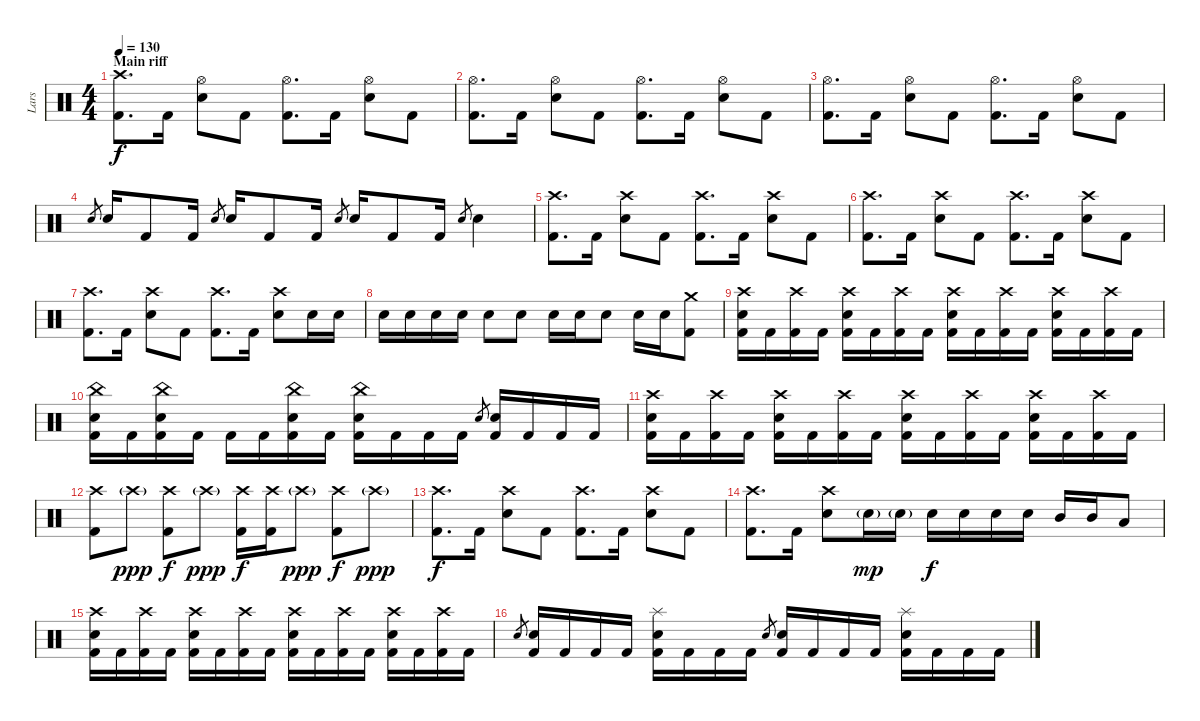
\track ("Lars" "Lars") {instrument percussion}
\staff {score}
\articulation defaults
\ts (4 4)
\section ("" "Main riff")
\tempo 130
\clef neutral
\ks c
("Kick (hit) 2" "Crash high (hit)").8{d dy f} "Kick (hit) 2".16 ("Electric Snare (hit)" "Hi-Hat (open)").8 "Kick (hit) 2".8 ("Kick (hit) 2" "Hi-Hat (open)").8{d} "Kick (hit) 2".16 ("Electric Snare (hit)" "Hi-Hat (open)").8 "Kick (hit) 2".8 |
("Kick (hit) 2" "Hi-Hat (open)").8{d} "Kick (hit) 2".16 ("Electric Snare (hit)" "Hi-Hat (open)").8 "Kick (hit) 2".8 ("Kick (hit) 2" "Hi-Hat (open)").8{d} "Kick (hit) 2".16 ("Electric Snare (hit)" "Hi-Hat (open)").8 "Kick (hit) 2".8 |
("Kick (hit) 2" "Hi-Hat (open)").8{d} "Kick (hit) 2".16 ("Electric Snare (hit)" "Hi-Hat (open)").8 "Kick (hit) 2".8 ("Kick (hit) 2" "Hi-Hat (open)").8{d} "Kick (hit) 2".16 ("Electric Snare (hit)" "Hi-Hat (open)").8 "Kick (hit) 2".8 |
"Electric Snare (hit)".8{gr} "Electric Snare (hit)".16 "Kick (hit) 2".8 "Kick (hit) 2".16 "Electric Snare (hit)".8{gr} "Electric Snare (hit)".16 "Kick (hit) 2".8 "Kick (hit) 2".16 "Electric Snare (hit)".8{gr} "Electric Snare (hit)".16 "Kick (hit) 2".8 "Kick (hit) 2".16 "Electric Snare (hit)".8{gr} "Electric Snare (hit)".4 |
\section ("" "")
("Kick (hit) 2" "Crash high (hit)").8{d} "Kick (hit) 2".16 ("Electric Snare (hit)" "Crash high (hit)").8 "Kick (hit) 2".8 ("Kick (hit) 2" "Crash high (hit)").8{d} "Kick (hit) 2".16 ("Electric Snare (hit)" "Crash high (hit)").8 "Kick (hit) 2".8 |
("Kick (hit) 2" "Crash high (hit)").8{d} "Kick (hit) 2".16 ("Electric Snare (hit)" "Crash high (hit)").8 "Kick (hit) 2".8 ("Kick (hit) 2" "Crash high (hit)").8{d} "Kick (hit) 2".16 ("Electric Snare (hit)" "Crash high (hit)").8 "Kick (hit) 2".8 |
("Kick (hit) 2" "Crash high (hit)").8{d} "Kick (hit) 2".16 ("Electric Snare (hit)" "Crash high (hit)").8 "Kick (hit) 2".8 ("Kick (hit) 2" "Crash high (hit)").8{d} "Kick (hit) 2".16 ("Electric Snare (hit)" "Crash high (hit)").8 "Electric Snare (hit)".16 "Electric Snare (hit)".16 |
"Electric Snare (hit)".16 "Electric Snare (hit)".16 "Electric Snare (hit)".16 "Electric Snare (hit)".16 "Electric Snare (hit)".8 "Electric Snare (hit)".8 "Electric Snare (hit)".16 "Electric Snare (hit)".16 "Electric Snare (hit)".8 "Electric Snare (hit)".16 "Electric Snare (hit)".16 ("Kick (hit) 2" "Crash medium (hit)").8 |
\section ("" "")
("Kick (hit) 2" "Electric Snare (hit)" "Crash high (hit)").16 "Kick (hit) 2".16 ("Kick (hit) 2" "Crash high (hit)").16 "Kick (hit) 2".16 ("Kick (hit) 2" "Electric Snare (hit)" "Crash high (hit)").16 "Kick (hit) 2".16 ("Kick (hit) 2" "Crash high (hit)").16 "Kick (hit) 2".16 ("Kick (hit) 2" "Electric Snare (hit)" "Crash high (hit)").16 "Kick (hit) 2".16 ("Kick (hit) 2" "Crash high (hit)").16 "Kick (hit) 2".16 ("Kick (hit) 2" "Electric Snare (hit)" "Crash high (hit)").16 "Kick (hit) 2".16 ("Kick (hit) 2" "Crash high (hit)").16 "Kick (hit) 2".16 |
("Kick (hit) 2" "Electric Snare (hit)" "China (hit)").16 "Kick (hit) 2".16 ("Kick (hit) 2" "Electric Snare (hit)" "China (hit)").16 "Kick (hit) 2".16 "Kick (hit) 2".16 "Kick (hit) 2".16 ("Kick (hit) 2" "Electric Snare (hit)" "China (hit)").16 "Kick (hit) 2".16 ("Kick (hit) 2" "Electric Snare (hit)" "China (hit)").16 "Kick (hit) 2".16 "Kick (hit) 2".16 "Kick (hit) 2".16 "Electric Snare (hit)".8{gr} ("Kick (hit) 2" "Electric Snare (hit)").16 "Kick (hit) 2".16 "Kick (hit) 2".16 "Kick (hit) 2".16 |
("Kick (hit) 2" "Electric Snare (hit)" "Crash high (hit)").16 "Kick (hit) 2".16 ("Kick (hit) 2" "Crash high (hit)").16 "Kick (hit) 2".16 ("Kick (hit) 2" "Electric Snare (hit)" "Crash high (hit)").16 "Kick (hit) 2".16 ("Kick (hit) 2" "Crash high (hit)").16 "Kick (hit) 2".16 ("Kick (hit) 2" "Electric Snare (hit)" "Crash high (hit)").16 "Kick (hit) 2".16 ("Kick (hit) 2" "Crash high (hit)").16 "Kick (hit) 2".16 ("Kick (hit) 2" "Electric Snare (hit)" "Crash high (hit)").16 "Kick (hit) 2".16 ("Kick (hit) 2" "Crash high (hit)").16 "Kick (hit) 2".16 |
("Kick (hit) 2" "Crash high (hit)").8 "Crash high (hit)"{g}.8{dy ppp} ("Kick (hit) 2" "Crash high (hit)").8{dy f} "Crash high (hit)"{g}.8{dy ppp} ("Kick (hit) 2" "Crash high (hit)").16{dy f} ("Kick (hit) 2" "Crash high (hit)").16 "Crash high (hit)"{g}.8{dy ppp} ("Kick (hit) 2" "Crash high (hit)").8{dy f} "Crash high (hit)"{g}.8{dy ppp} |
\section ("" "")
("Kick (hit) 2" "Crash high (hit)").8{d dy f} "Kick (hit) 2".16 ("Electric Snare (hit)" "Crash high (hit)").8 "Kick (hit) 2".8 ("Kick (hit) 2" "Crash high (hit)").8{d} "Kick (hit) 2".16 ("Electric Snare (hit)" "Crash high (hit)").8 "Kick (hit) 2".8 |
("Kick (hit) 2" "Crash high (hit)").8{d} "Kick (hit) 2".16 ("Electric Snare (hit)" "Crash high (hit)").8 "Electric Snare (hit)"{g}.16{dy mp} "Electric Snare (hit)"{g}.16 "Electric Snare (hit)".16{dy f} "Electric Snare (hit)".16 "Electric Snare (hit)".16 "Electric Snare (hit)".16 "Mid Tom (hit)".16 "Mid Tom (hit)".16 "Low Tom (hit)".8 |
\section ("" "")
("Kick (hit) 2" "Electric Snare (hit)" "Crash high (hit)").16 "Kick (hit) 2".16 ("Kick (hit) 2" "Crash high (hit)").16 "Kick (hit) 2".16 ("Kick (hit) 2" "Electric Snare (hit)" "Crash high (hit)").16 "Kick (hit) 2".16 ("Kick (hit) 2" "Crash high (hit)").16 "Kick (hit) 2".16 ("Kick (hit) 2" "Electric Snare (hit)" "Crash high (hit)").16 "Kick (hit) 2".16 ("Kick (hit) 2" "Crash high (hit)").16 "Kick (hit) 2".16 ("Kick (hit) 2" "Electric Snare (hit)" "Crash high (hit)").16 "Kick (hit) 2".16 ("Kick (hit) 2" "Crash high (hit)").16 "Kick (hit) 2".16 |
"Electric Snare (hit)".8{gr} ("Kick (hit) 2" "Electric Snare (hit)").16 "Kick (hit) 2".16 "Kick (hit) 2".16 "Kick (hit) 2".16 ("Kick (hit) 2" "Electric Snare (hit)" "Splash (hit)").16 "Kick (hit) 2".16 "Kick (hit) 2".16 "Kick (hit) 2".16 "Electric Snare (hit)".8{gr} ("Kick (hit) 2" "Electric Snare (hit)").16 "Kick (hit) 2".16 "Kick (hit) 2".16 "Kick (hit) 2".16 ("Kick (hit) 2" "Electric Snare (hit)" "Splash (hit)").16 "Kick (hit) 2".16 "Kick (hit) 2".16 "Kick (hit) 2".16
